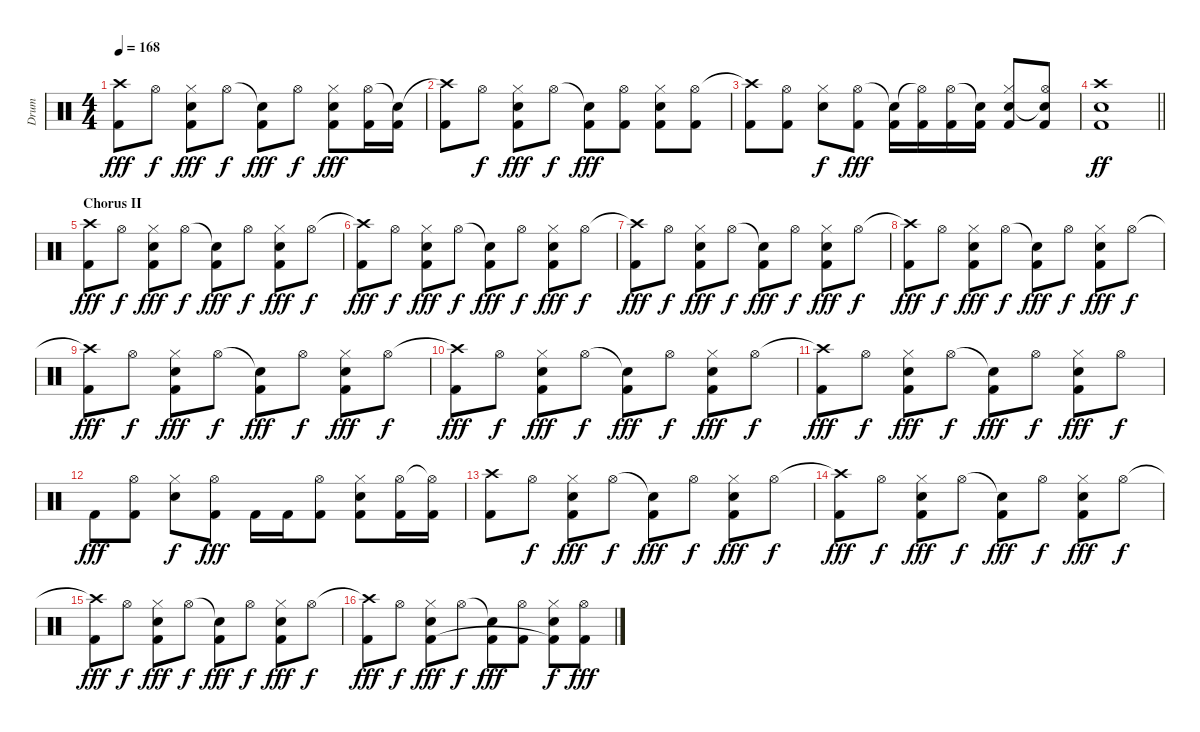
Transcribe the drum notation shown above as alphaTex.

\track ("Drum" "Drum") {instrument percussion}
\staff {score}
\articulation defaults
\ts (4 4)
\tempo 168
\clef neutral
\ks c
("Crash high (hit)"{t} "Kick (hit) 2").8{dy fff} "Hi-Hat (open)".8{dy f} ("Hi-Hat (closed)" "Snare (hit) 2" "Kick (hit) 2").8{dy fff} "Hi-Hat (open)".8{dy f} ("Snare (hit)"{t} "Kick (hit) 2").8{dy fff} "Hi-Hat (open)".8{dy f} ("Hi-Hat (closed)" "Snare (hit) 2" "Kick (hit) 2").8{dy fff} ("Hi-Hat (open)" "Kick (hit) 2").16 ("Snare (hit)"{t} "Kick (hit) 2").16 |
("Crash high (hit)"{t} "Kick (hit) 2").8 "Hi-Hat (open)".8{dy f} ("Hi-Hat (closed)" "Snare (hit) 2" "Kick (hit) 2").8{dy fff} "Hi-Hat (open)".8{dy f} ("Snare (hit)"{t} "Kick (hit) 2").8{dy fff} ("Hi-Hat (open)" "Kick (hit) 2").8 ("Hi-Hat (closed)" "Snare (hit) 2" "Kick (hit) 2").8 ("Hi-Hat (open)" "Kick (hit) 2").8 |
("Crash high (hit)"{t} "Kick (hit) 2").8 ("Hi-Hat (open)" "Kick (hit) 2").8 ("Hi-Hat (closed)" "Snare (hit) 2").8{dy f} ("Hi-Hat (open)" "Kick (hit) 2").8{dy fff} ("Snare (hit)"{t} "Kick (hit) 2").16 ("Hi-Hat (open)"{t} "Kick (hit) 2").16 ("Hi-Hat (open)" "Kick (hit) 2").16 ("Snare (hit)"{t} "Kick (hit) 2").16 ("Hi-Hat (closed)" "Snare (hit) 2" "Kick (hit) 2").8 ("Hi-Hat (open)" "Snare (hit)"{t} "Kick (hit) 2").8 |
\barLineRight lightlight
("Crash high (hit)" "Snare (hit) 2" "Kick (hit) 2").1{dy ff} |
\section ("" "Chorus II")
("Crash high (hit)" "Kick (hit) 2").8{dy fff} "Hi-Hat (open)".8{dy f} ("Hi-Hat (closed)" "Snare (hit) 2" "Kick (hit) 2").8{dy fff} "Hi-Hat (open)".8{dy f} ("Snare (hit)"{t} "Kick (hit) 2").8{dy fff} "Hi-Hat (open)".8{dy f} ("Hi-Hat (closed)" "Snare (hit) 2" "Kick (hit) 2").8{dy fff} "Hi-Hat (open)".8{dy f} |
("Crash high (hit)"{t} "Kick (hit) 2").8{dy fff} "Hi-Hat (open)".8{dy f} ("Hi-Hat (closed)" "Snare (hit) 2" "Kick (hit) 2").8{dy fff} "Hi-Hat (open)".8{dy f} ("Snare (hit)"{t} "Kick (hit) 2").8{dy fff} "Hi-Hat (open)".8{dy f} ("Hi-Hat (closed)" "Snare (hit) 2" "Kick (hit) 2").8{dy fff} "Hi-Hat (open)".8{dy f} |
("Crash high (hit)"{t} "Kick (hit) 2").8{dy fff} "Hi-Hat (open)".8{dy f} ("Hi-Hat (closed)" "Snare (hit) 2" "Kick (hit) 2").8{dy fff} "Hi-Hat (open)".8{dy f} ("Snare (hit)"{t} "Kick (hit) 2").8{dy fff} "Hi-Hat (open)".8{dy f} ("Hi-Hat (closed)" "Snare (hit) 2" "Kick (hit) 2").8{dy fff} "Hi-Hat (open)".8{dy f} |
("Crash high (hit)"{t} "Kick (hit) 2").8{dy fff} "Hi-Hat (open)".8{dy f} ("Hi-Hat (closed)" "Snare (hit) 2" "Kick (hit) 2").8{dy fff} "Hi-Hat (open)".8{dy f} ("Snare (hit)"{t} "Kick (hit) 2").8{dy fff} "Hi-Hat (open)".8{dy f} ("Hi-Hat (closed)" "Snare (hit) 2" "Kick (hit) 2").8{dy fff} "Hi-Hat (open)".8{dy f} |
("Crash high (hit)"{t} "Kick (hit) 2").8{dy fff} "Hi-Hat (open)".8{dy f} ("Hi-Hat (closed)" "Snare (hit) 2" "Kick (hit) 2").8{dy fff} "Hi-Hat (open)".8{dy f} ("Snare (hit)"{t} "Kick (hit) 2").8{dy fff} "Hi-Hat (open)".8{dy f} ("Hi-Hat (closed)" "Snare (hit) 2" "Kick (hit) 2").8{dy fff} "Hi-Hat (open)".8{dy f} |
("Crash high (hit)"{t} "Kick (hit) 2").8{dy fff} "Hi-Hat (open)".8{dy f} ("Hi-Hat (closed)" "Snare (hit) 2" "Kick (hit) 2").8{dy fff} "Hi-Hat (open)".8{dy f} ("Snare (hit)"{t} "Kick (hit) 2").8{dy fff} "Hi-Hat (open)".8{dy f} ("Hi-Hat (closed)" "Snare (hit) 2" "Kick (hit) 2").8{dy fff} "Hi-Hat (open)".8{dy f} |
("Crash high (hit)"{t} "Kick (hit) 2").8{dy fff} "Hi-Hat (open)".8{dy f} ("Hi-Hat (closed)" "Snare (hit) 2" "Kick (hit) 2").8{dy fff} "Hi-Hat (open)".8{dy f} ("Snare (hit)"{t} "Kick (hit) 2").8{dy fff} "Hi-Hat (open)".8{dy f} ("Hi-Hat (closed)" "Snare (hit) 2" "Kick (hit) 2").8{dy fff} "Hi-Hat (open)".8{dy f} |
"Kick (hit) 2".8{dy fff} ("Hi-Hat (open)" "Kick (hit) 2").8 ("Hi-Hat (closed)" "Snare (hit) 2").8{dy f} ("Hi-Hat (open)" "Kick (hit) 2").8{dy fff} "Kick (hit) 2".16 "Kick (hit) 2".16 ("Hi-Hat (open)" "Kick (hit) 2").8 ("Hi-Hat (closed)" "Snare (hit) 2" "Kick (hit) 2").8 ("Hi-Hat (open)" "Kick (hit) 2").16 ("Hi-Hat (open)"{t} "Kick (hit) 2").16 |
("Crash high (hit)" "Kick (hit) 2").8 "Hi-Hat (open)".8{dy f} ("Hi-Hat (closed)" "Snare (hit) 2" "Kick (hit) 2").8{dy fff} "Hi-Hat (open)".8{dy f} ("Snare (hit)"{t} "Kick (hit) 2").8{dy fff} "Hi-Hat (open)".8{dy f} ("Hi-Hat (closed)" "Snare (hit) 2" "Kick (hit) 2").8{dy fff} "Hi-Hat (open)".8{dy f} |
("Crash high (hit)"{t} "Kick (hit) 2").8{dy fff} "Hi-Hat (open)".8{dy f} ("Hi-Hat (closed)" "Snare (hit) 2" "Kick (hit) 2").8{dy fff} "Hi-Hat (open)".8{dy f} ("Snare (hit)"{t} "Kick (hit) 2").8{dy fff} "Hi-Hat (open)".8{dy f} ("Hi-Hat (closed)" "Snare (hit) 2" "Kick (hit) 2").8{dy fff} "Hi-Hat (open)".8{dy f} |
("Crash high (hit)"{t} "Kick (hit) 2").8{dy fff} "Hi-Hat (open)".8{dy f} ("Hi-Hat (closed)" "Snare (hit) 2" "Kick (hit) 2").8{dy fff} "Hi-Hat (open)".8{dy f} ("Snare (hit)"{t} "Kick (hit) 2").8{dy fff} "Hi-Hat (open)".8{dy f} ("Hi-Hat (closed)" "Snare (hit) 2" "Kick (hit) 2").8{dy fff} "Hi-Hat (open)".8{dy f} |
("Crash high (hit)"{t} "Kick (hit) 2").8{dy fff} "Hi-Hat (open)".8{dy f} ("Hi-Hat (closed)" "Snare (hit) 2" "Kick (hit) 2").8{dy fff} "Hi-Hat (open)".8{dy f} ("Snare (hit)"{t} "Kick (hit) 2").8{dy fff} ("Hi-Hat (open)" "Kick (hit) 2").8 ("Hi-Hat (closed)" "Snare (hit) 2" "Kick (hit) 2"{t}).8{dy f} ("Hi-Hat (open)" "Kick (hit) 2").8{dy fff}
